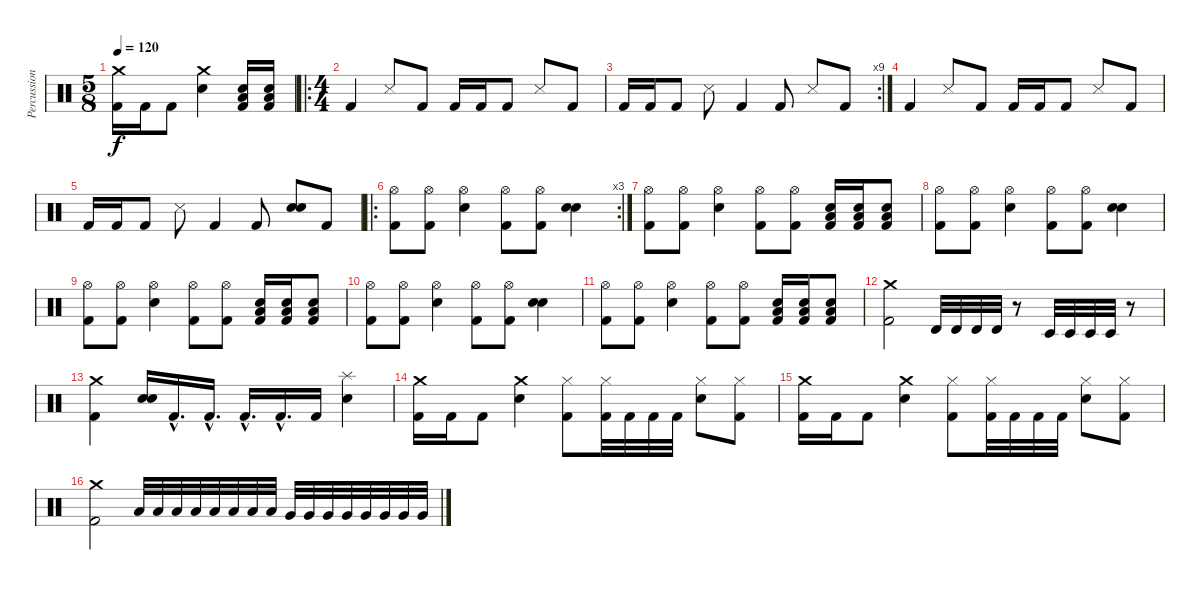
\track ("Percussion" "Percussion") {instrument percussion}
\staff {score}
\articulation defaults
\ts (5 8)
\tempo 120
\clef neutral
\ks c
("Crash medium (hit)" "Kick (hit) 2").16{dy f} "Kick (hit) 2".16 "Kick (hit) 2".8 ("Crash medium (hit)" "Electric Snare (hit)").4 ("Low Floor Tom (hit)" "Electric Snare (hit)" "Kick (hit) 2").16 ("Low Floor Tom (hit)" "Electric Snare (hit)" "Kick (hit) 2").16 |
\ro
\ts (4 4)
"Kick (hit) 2".4 "Snare (side stick) 3".8 "Kick (hit) 2".8 "Kick (hit) 2".16 "Kick (hit) 2".16 "Kick (hit) 2".8 "Snare (side stick) 3".8 "Kick (hit) 2".8 |
\rc 9 "Kick (hit) 2".16 "Kick (hit) 2".16 "Kick (hit) 2".8 "Snare (side stick) 3".8 "Kick (hit) 2".4 "Kick (hit) 2".8 "Snare (side stick) 3".8 "Kick (hit) 2".8
|
"Kick (hit) 2".4 "Snare (side stick) 3".8 "Kick (hit) 2".8 "Kick (hit) 2".16 "Kick (hit) 2".16 "Kick (hit) 2".8 "Snare (side stick) 3".8 "Kick (hit) 2".8 |
"Kick (hit) 2".16 "Kick (hit) 2".16 "Kick (hit) 2".8 "Snare (side stick) 3".8 "Kick (hit) 2".4 "Kick (hit) 2".8 ("Electric Snare (hit)" "Electric Snare (hit)").8 "Kick (hit) 2".8 |
\ro
\rc 3
("Hi-Hat (open)" "Kick (hit) 2").8 ("Hi-Hat (open)" "Kick (hit) 2").8 ("Hi-Hat (open)" "Electric Snare (hit)").4 ("Hi-Hat (open)" "Kick (hit) 2").8 ("Hi-Hat (open)" "Kick (hit) 2").8 ("Electric Snare (hit)" "Electric Snare (hit)").4 |
("Hi-Hat (open)" "Kick (hit) 2").8 ("Hi-Hat (open)" "Kick (hit) 2").8 ("Hi-Hat (open)" "Electric Snare (hit)").4 ("Hi-Hat (open)" "Kick (hit) 2").8 ("Hi-Hat (open)" "Kick (hit) 2").8 ("Low Floor Tom (hit)" "Electric Snare (hit)" "Kick (hit) 2").16 ("Low Floor Tom (hit)" "Electric Snare (hit)" "Kick (hit) 2").16 ("Low Floor Tom (hit)" "Electric Snare (hit)" "Kick (hit) 2").8 |
("Hi-Hat (open)" "Kick (hit) 2").8 ("Hi-Hat (open)" "Kick (hit) 2").8 ("Hi-Hat (open)" "Electric Snare (hit)").4 ("Hi-Hat (open)" "Kick (hit) 2").8 ("Hi-Hat (open)" "Kick (hit) 2").8 ("Electric Snare (hit)" "Electric Snare (hit)").4 |
("Hi-Hat (open)" "Kick (hit) 2").8 ("Hi-Hat (open)" "Kick (hit) 2").8 ("Hi-Hat (open)" "Electric Snare (hit)").4 ("Hi-Hat (open)" "Kick (hit) 2").8 ("Hi-Hat (open)" "Kick (hit) 2").8 ("Low Floor Tom (hit)" "Electric Snare (hit)" "Kick (hit) 2").16 ("Low Floor Tom (hit)" "Electric Snare (hit)" "Kick (hit) 2").16 ("Low Floor Tom (hit)" "Electric Snare (hit)" "Kick (hit) 2").8 |
("Hi-Hat (open)" "Kick (hit) 2").8 ("Hi-Hat (open)" "Kick (hit) 2").8 ("Hi-Hat (open)" "Electric Snare (hit)").4 ("Hi-Hat (open)" "Kick (hit) 2").8 ("Hi-Hat (open)" "Kick (hit) 2").8 ("Electric Snare (hit)" "Electric Snare (hit)").4 |
("Hi-Hat (open)" "Kick (hit) 2").8 ("Hi-Hat (open)" "Kick (hit) 2").8 ("Hi-Hat (open)" "Electric Snare (hit)").4 ("Hi-Hat (open)" "Kick (hit) 2").8 ("Hi-Hat (open)" "Kick (hit) 2").8 ("Low Floor Tom (hit)" "Electric Snare (hit)" "Kick (hit) 2").16 ("Low Floor Tom (hit)" "Electric Snare (hit)" "Kick (hit) 2").16 ("Low Floor Tom (hit)" "Electric Snare (hit)" "Kick (hit) 2").8 |
("Crash medium (hit)" "Kick (hit) 2").2 "Timbale high (hit)".32 "Timbale high (hit)".32 "Timbale high (hit)".32 "Timbale high (hit)".32 r.8 "Timbale low (hit)".32 "Timbale low (hit)".32 "Timbale low (hit)".32 "Timbale low (hit)".32 r.8 |
("Crash medium (hit)" "Kick (hit) 2").4 ("Electric Snare (hit)" "Electric Snare (hit)").16 "Kick (hit) 2"{hac}.16{d} "Kick (hit) 2"{hac}.16{d} "Kick (hit) 2"{hac}.16{d} "Kick (hit) 2"{hac}.16{d} "Kick (hit) 2".16 ("Splash (hit)" "Electric Snare (hit)").4 |
("Crash medium (hit)" "Kick (hit) 2").16 "Kick (hit) 2".16 "Kick (hit) 2".8 ("Crash medium (hit)" "Electric Snare (hit)").4 ("Hi-Hat (closed)" "Kick (hit) 2").8 ("Hi-Hat (closed)" "Kick (hit) 2").32 "Kick (hit) 2".32 "Kick (hit) 2".32 "Kick (hit) 2".32 ("Hi-Hat (closed)" "Electric Snare (hit)").8 ("Hi-Hat (closed)" "Kick (hit) 2").8 |
("Crash medium (hit)" "Kick (hit) 2").16 "Kick (hit) 2".16 "Kick (hit) 2".8 ("Crash medium (hit)" "Electric Snare (hit)").4 ("Hi-Hat (closed)" "Kick (hit) 2").8 ("Hi-Hat (closed)" "Kick (hit) 2").32 "Kick (hit) 2".32 "Kick (hit) 2".32 "Kick (hit) 2".32 ("Hi-Hat (closed)" "Electric Snare (hit)").8 ("Hi-Hat (closed)" "Kick (hit) 2").8 |
("Crash medium (hit)" "Kick (hit) 2").2 "Low Floor Tom (hit)".32 "Low Floor Tom (hit)".32 "Low Floor Tom (hit)".32 "Low Floor Tom (hit)".32 "Low Floor Tom (hit)".32 "Low Floor Tom (hit)".32 "Low Floor Tom (hit)".32 "Low Floor Tom (hit)".32 "Very Low Tom (hit)".32 "Very Low Tom (hit)".32 "Very Low Tom (hit)".32 "Very Low Tom (hit)".32 "Very Low Tom (hit)".32 "Very Low Tom (hit)".32 "Very Low Tom (hit)".32 "Very Low Tom (hit)".32
